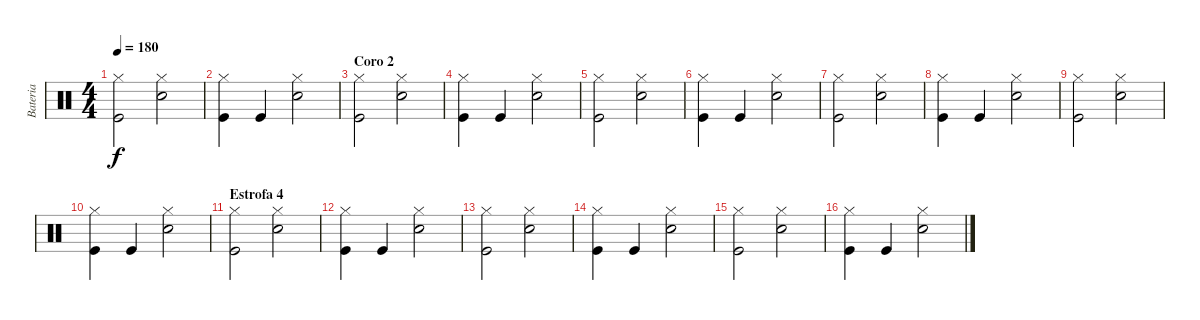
\track ("Bateria" "Bateria") {instrument percussion}
\staff {score}
\articulation defaults
\ts (4 4)
\tempo 180
\clef neutral
\ks c
("Hi-Hat (closed)" "Kick (hit)").2{dy f} ("Hi-Hat (closed)" "Snare (hit) 2").2 |
("Hi-Hat (closed)" "Kick (hit)").4 "Kick (hit)".4 ("Hi-Hat (closed)" "Snare (hit) 2").2 |
\section ("" "Coro 2")
("Hi-Hat (closed)" "Kick (hit)").2 ("Hi-Hat (closed)" "Snare (hit) 2").2 |
("Hi-Hat (closed)" "Kick (hit)").4 "Kick (hit)".4 ("Hi-Hat (closed)" "Snare (hit) 2").2 |
("Hi-Hat (closed)" "Kick (hit)").2 ("Hi-Hat (closed)" "Snare (hit) 2").2 |
("Hi-Hat (closed)" "Kick (hit)").4 "Kick (hit)".4 ("Hi-Hat (closed)" "Snare (hit) 2").2 |
("Hi-Hat (closed)" "Kick (hit)").2 ("Hi-Hat (closed)" "Snare (hit) 2").2 |
("Hi-Hat (closed)" "Kick (hit)").4 "Kick (hit)".4 ("Hi-Hat (closed)" "Snare (hit) 2").2 |
("Hi-Hat (closed)" "Kick (hit)").2 ("Hi-Hat (closed)" "Snare (hit) 2").2 |
("Hi-Hat (closed)" "Kick (hit)").4 "Kick (hit)".4 ("Hi-Hat (closed)" "Snare (hit) 2").2 |
\section ("" "Estrofa 4")
("Hi-Hat (closed)" "Kick (hit)").2 ("Hi-Hat (closed)" "Snare (hit) 2").2 |
("Hi-Hat (closed)" "Kick (hit)").4 "Kick (hit)".4 ("Hi-Hat (closed)" "Snare (hit) 2").2 |
("Hi-Hat (closed)" "Kick (hit)").2 ("Hi-Hat (closed)" "Snare (hit) 2").2 |
("Hi-Hat (closed)" "Kick (hit)").4 "Kick (hit)".4 ("Hi-Hat (closed)" "Snare (hit) 2").2 |
("Hi-Hat (closed)" "Kick (hit)").2 ("Hi-Hat (closed)" "Snare (hit) 2").2 |
("Hi-Hat (closed)" "Kick (hit)").4 "Kick (hit)".4 ("Hi-Hat (closed)" "Snare (hit) 2").2
